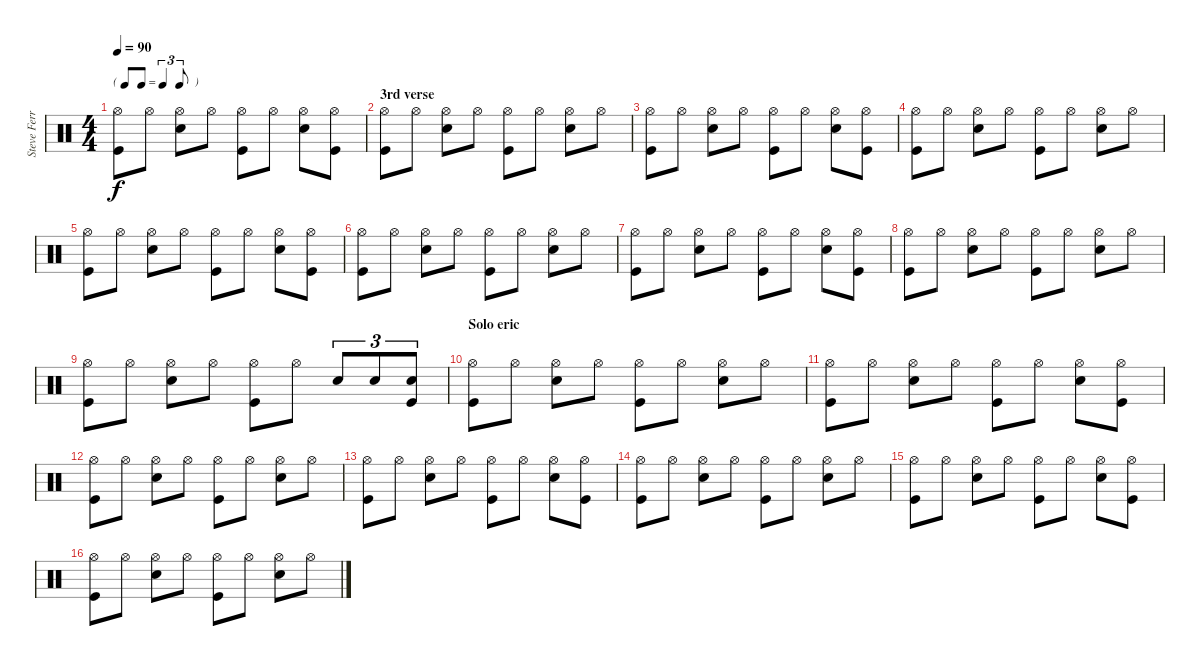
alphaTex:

\track ("Steve Ferrone" "Steve Ferr") {instrument percussion}
\staff {score}
\articulation defaults
\ts (4 4)
\tf triplet8th
\tempo 90
\clef neutral
\ks c
("Hi-Hat (open)" "Kick (hit)").8{dy f} "Hi-Hat (open)".8 ("Hi-Hat (open)" "Snare (hit) 2").8 "Hi-Hat (open)".8 ("Hi-Hat (open)" "Kick (hit)").8 "Hi-Hat (open)".8 ("Hi-Hat (open)" "Snare (hit) 2").8 ("Hi-Hat (open)" "Kick (hit)").8 |
\section ("" "3rd verse")
("Hi-Hat (open)" "Kick (hit)").8 "Hi-Hat (open)".8 ("Hi-Hat (open)" "Snare (hit) 2").8 "Hi-Hat (open)".8 ("Hi-Hat (open)" "Kick (hit)").8 "Hi-Hat (open)".8 ("Hi-Hat (open)" "Snare (hit) 2").8 "Hi-Hat (open)".8 |
("Hi-Hat (open)" "Kick (hit)").8 "Hi-Hat (open)".8 ("Hi-Hat (open)" "Snare (hit) 2").8 "Hi-Hat (open)".8 ("Hi-Hat (open)" "Kick (hit)").8 "Hi-Hat (open)".8 ("Hi-Hat (open)" "Snare (hit) 2").8 ("Hi-Hat (open)" "Kick (hit)").8 |
("Hi-Hat (open)" "Kick (hit)").8 "Hi-Hat (open)".8 ("Hi-Hat (open)" "Snare (hit) 2").8 "Hi-Hat (open)".8 ("Hi-Hat (open)" "Kick (hit)").8 "Hi-Hat (open)".8 ("Hi-Hat (open)" "Snare (hit) 2").8 "Hi-Hat (open)".8 |
("Hi-Hat (open)" "Kick (hit)").8 "Hi-Hat (open)".8 ("Hi-Hat (open)" "Snare (hit) 2").8 "Hi-Hat (open)".8 ("Hi-Hat (open)" "Kick (hit)").8 "Hi-Hat (open)".8 ("Hi-Hat (open)" "Snare (hit) 2").8 ("Hi-Hat (open)" "Kick (hit)").8 |
("Hi-Hat (open)" "Kick (hit)").8 "Hi-Hat (open)".8 ("Hi-Hat (open)" "Snare (hit) 2").8 "Hi-Hat (open)".8 ("Hi-Hat (open)" "Kick (hit)").8 "Hi-Hat (open)".8 ("Hi-Hat (open)" "Snare (hit) 2").8 "Hi-Hat (open)".8 |
("Hi-Hat (open)" "Kick (hit)").8 "Hi-Hat (open)".8 ("Hi-Hat (open)" "Snare (hit) 2").8 "Hi-Hat (open)".8 ("Hi-Hat (open)" "Kick (hit)").8 "Hi-Hat (open)".8 ("Hi-Hat (open)" "Snare (hit) 2").8 ("Hi-Hat (open)" "Kick (hit)").8 |
("Hi-Hat (open)" "Kick (hit)").8 "Hi-Hat (open)".8 ("Hi-Hat (open)" "Snare (hit) 2").8 "Hi-Hat (open)".8 ("Hi-Hat (open)" "Kick (hit)").8 "Hi-Hat (open)".8 ("Hi-Hat (open)" "Snare (hit) 2").8 "Hi-Hat (open)".8 |
("Hi-Hat (open)" "Kick (hit)").8 "Hi-Hat (open)".8 ("Hi-Hat (open)" "Snare (hit) 2").8 "Hi-Hat (open)".8 ("Hi-Hat (open)" "Kick (hit)").8 "Hi-Hat (open)".8 "Snare (hit) 2".8{tu (3 2)} "Snare (hit) 2".8{tu (3 2)} ("Snare (hit) 2" "Kick (hit)").8{tu (3 2)} |
\section ("" "Solo eric")
("Hi-Hat (open)" "Kick (hit)").8 "Hi-Hat (open)".8 ("Hi-Hat (open)" "Snare (hit) 2").8 "Hi-Hat (open)".8 ("Hi-Hat (open)" "Kick (hit)").8 "Hi-Hat (open)".8 ("Hi-Hat (open)" "Snare (hit) 2").8 "Hi-Hat (open)".8 |
("Hi-Hat (open)" "Kick (hit)").8 "Hi-Hat (open)".8 ("Hi-Hat (open)" "Snare (hit) 2").8 "Hi-Hat (open)".8 ("Hi-Hat (open)" "Kick (hit)").8 "Hi-Hat (open)".8 ("Hi-Hat (open)" "Snare (hit) 2").8 ("Hi-Hat (open)" "Kick (hit)").8 |
("Hi-Hat (open)" "Kick (hit)").8 "Hi-Hat (open)".8 ("Hi-Hat (open)" "Snare (hit) 2").8 "Hi-Hat (open)".8 ("Hi-Hat (open)" "Kick (hit)").8 "Hi-Hat (open)".8 ("Hi-Hat (open)" "Snare (hit) 2").8 "Hi-Hat (open)".8 |
("Hi-Hat (open)" "Kick (hit)").8 "Hi-Hat (open)".8 ("Hi-Hat (open)" "Snare (hit) 2").8 "Hi-Hat (open)".8 ("Hi-Hat (open)" "Kick (hit)").8 "Hi-Hat (open)".8 ("Hi-Hat (open)" "Snare (hit) 2").8 ("Hi-Hat (open)" "Kick (hit)").8 |
("Hi-Hat (open)" "Kick (hit)").8 "Hi-Hat (open)".8 ("Hi-Hat (open)" "Snare (hit) 2").8 "Hi-Hat (open)".8 ("Hi-Hat (open)" "Kick (hit)").8 "Hi-Hat (open)".8 ("Hi-Hat (open)" "Snare (hit) 2").8 "Hi-Hat (open)".8 |
("Hi-Hat (open)" "Kick (hit)").8 "Hi-Hat (open)".8 ("Hi-Hat (open)" "Snare (hit) 2").8 "Hi-Hat (open)".8 ("Hi-Hat (open)" "Kick (hit)").8 "Hi-Hat (open)".8 ("Hi-Hat (open)" "Snare (hit) 2").8 ("Hi-Hat (open)" "Kick (hit)").8 |
("Hi-Hat (open)" "Kick (hit)").8 "Hi-Hat (open)".8 ("Hi-Hat (open)" "Snare (hit) 2").8 "Hi-Hat (open)".8 ("Hi-Hat (open)" "Kick (hit)").8 "Hi-Hat (open)".8 ("Hi-Hat (open)" "Snare (hit) 2").8 "Hi-Hat (open)".8
